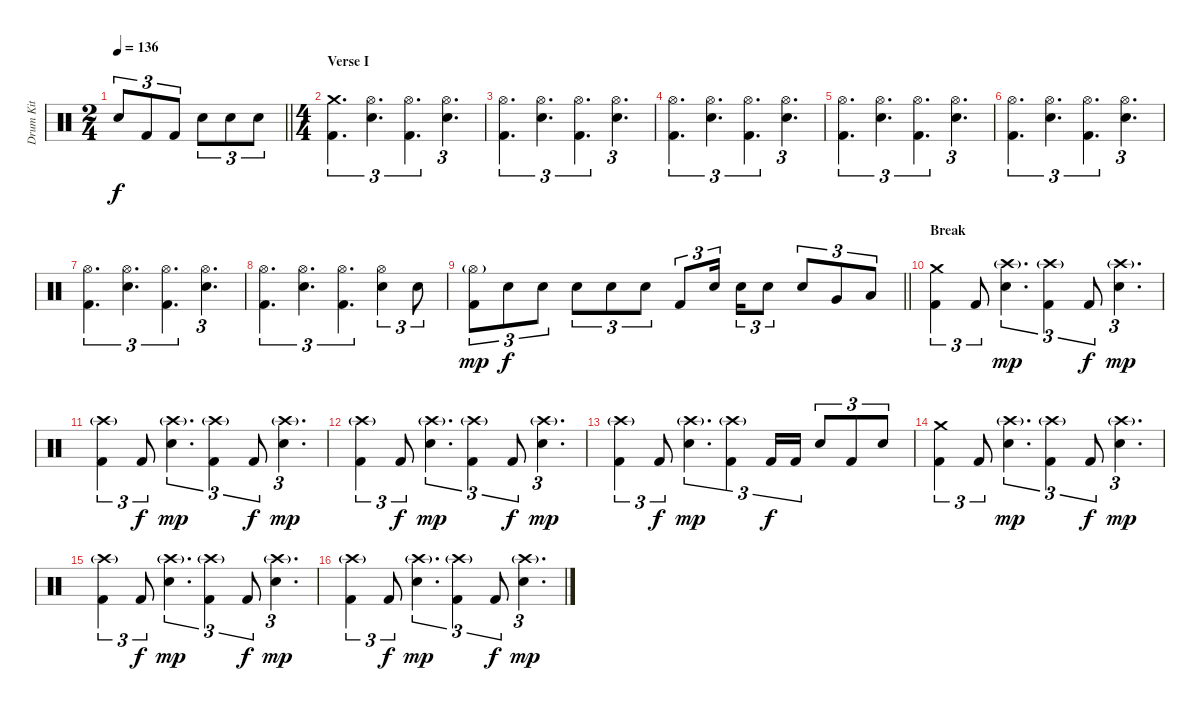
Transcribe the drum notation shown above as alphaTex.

\track ("Drum Kit" "Drum Kit") {instrument percussion}
\staff {score}
\articulation defaults
\ts (2 4)
\tempo 136
\clef neutral
\barLineRight lightlight
\ks c "Electric Snare (hit)".8{tu (3 2) dy f} "Kick (hit) 2".8{tu (3 2)} "Kick (hit) 2".8{tu (3 2)} "Electric Snare (hit)".8{tu (3 2)} "Electric Snare (hit)".8{tu (3 2)} "Electric Snare (hit)".8{tu (3 2)}
|
\ts (4 4)
\section ("" "Verse I")
("Crash medium (hit)" "Kick (hit) 2").4{d tu (3 2)} ("Hi-Hat (open)" "Electric Snare (hit)").4{d tu (3 2)} ("Hi-Hat (open)" "Kick (hit) 2").4{d tu (3 2)} ("Hi-Hat (open)" "Electric Snare (hit)").4{d tu (3 2)} |
("Hi-Hat (open)" "Kick (hit) 2").4{d tu (3 2)} ("Hi-Hat (open)" "Electric Snare (hit)").4{d tu (3 2)} ("Hi-Hat (open)" "Kick (hit) 2").4{d tu (3 2)} ("Hi-Hat (open)" "Electric Snare (hit)").4{d tu (3 2)} |
("Hi-Hat (open)" "Kick (hit) 2").4{d tu (3 2)} ("Hi-Hat (open)" "Electric Snare (hit)").4{d tu (3 2)} ("Hi-Hat (open)" "Kick (hit) 2").4{d tu (3 2)} ("Hi-Hat (open)" "Electric Snare (hit)").4{d tu (3 2)} |
("Hi-Hat (open)" "Kick (hit) 2").4{d tu (3 2)} ("Hi-Hat (open)" "Electric Snare (hit)").4{d tu (3 2)} ("Hi-Hat (open)" "Kick (hit) 2").4{d tu (3 2)} ("Hi-Hat (open)" "Electric Snare (hit)").4{d tu (3 2)} |
("Hi-Hat (open)" "Kick (hit) 2").4{d tu (3 2)} ("Hi-Hat (open)" "Electric Snare (hit)").4{d tu (3 2)} ("Hi-Hat (open)" "Kick (hit) 2").4{d tu (3 2)} ("Hi-Hat (open)" "Electric Snare (hit)").4{d tu (3 2)} |
("Hi-Hat (open)" "Kick (hit) 2").4{d tu (3 2)} ("Hi-Hat (open)" "Electric Snare (hit)").4{d tu (3 2)} ("Hi-Hat (open)" "Kick (hit) 2").4{d tu (3 2)} ("Hi-Hat (open)" "Electric Snare (hit)").4{d tu (3 2)} |
("Hi-Hat (open)" "Kick (hit) 2").4{d tu (3 2)} ("Hi-Hat (open)" "Electric Snare (hit)").4{d tu (3 2)} ("Hi-Hat (open)" "Kick (hit) 2").4{d tu (3 2)} ("Hi-Hat (open)" "Electric Snare (hit)").4{tu (3 2)} "Electric Snare (hit)".8{tu (3 2)} |
\barLineRight lightlight
("Hi-Hat (open)"{g} "Kick (hit) 2").8{tu (3 2) dy mp} "Electric Snare (hit)".8{tu (3 2) dy f} "Electric Snare (hit)".8{tu (3 2)} "Electric Snare (hit)".8{tu (3 2)} "Electric Snare (hit)".8{tu (3 2)} "Electric Snare (hit)".8{tu (3 2)} "Kick (hit) 2".8{tu (3 2)} "Electric Snare (hit)".16{tu (3 2) beam splitsecondary} "Electric Snare (hit)".16{tu (3 2)} "Electric Snare (hit)".8{tu (3 2)} "Electric Snare (hit)".8{tu (3 2)} "Very Low Tom (hit)".8{tu (3 2)} "Low Floor Tom (hit)".8{tu (3 2)} |
\section ("" "Break")
("Crash medium (hit)" "Kick (hit) 2").4{tu (3 2)} "Kick (hit) 2".8{tu (3 2)} ("Crash high (hit)"{g} "Electric Snare (hit)").4{d tu (3 2) dy mp} ("Crash high (hit)"{g} "Kick (hit) 2").4{tu (3 2)} "Kick (hit) 2".8{tu (3 2) dy f} ("Crash high (hit)"{g} "Electric Snare (hit)").4{d tu (3 2) dy mp} |
("Crash high (hit)"{g} "Kick (hit) 2").4{tu (3 2)} "Kick (hit) 2".8{tu (3 2) dy f} ("Crash high (hit)"{g} "Electric Snare (hit)").4{d tu (3 2) dy mp} ("Crash high (hit)"{g} "Kick (hit) 2").4{tu (3 2)} "Kick (hit) 2".8{tu (3 2) dy f} ("Crash high (hit)"{g} "Electric Snare (hit)").4{d tu (3 2) dy mp} |
("Crash high (hit)"{g} "Kick (hit) 2").4{tu (3 2)} "Kick (hit) 2".8{tu (3 2) dy f} ("Crash high (hit)"{g} "Electric Snare (hit)").4{d tu (3 2) dy mp} ("Crash high (hit)"{g} "Kick (hit) 2").4{tu (3 2)} "Kick (hit) 2".8{tu (3 2) dy f} ("Crash high (hit)"{g} "Electric Snare (hit)").4{d tu (3 2) dy mp} |
("Crash high (hit)"{g} "Kick (hit) 2").4{tu (3 2)} "Kick (hit) 2".8{tu (3 2) dy f} ("Crash high (hit)"{g} "Electric Snare (hit)").4{d tu (3 2) dy mp} ("Crash high (hit)"{g} "Kick (hit) 2").4{tu (3 2)} "Kick (hit) 2".16{tu (3 2) dy f} "Kick (hit) 2".16{tu (3 2)} "Electric Snare (hit)".8{tu (3 2)} "Kick (hit) 2".8{tu (3 2)} "Electric Snare (hit)".8{tu (3 2)} |
("Crash medium (hit)" "Kick (hit) 2").4{tu (3 2)} "Kick (hit) 2".8{tu (3 2)} ("Crash high (hit)"{g} "Electric Snare (hit)").4{d tu (3 2) dy mp} ("Crash high (hit)"{g} "Kick (hit) 2").4{tu (3 2)} "Kick (hit) 2".8{tu (3 2) dy f} ("Crash high (hit)"{g} "Electric Snare (hit)").4{d tu (3 2) dy mp} |
("Crash high (hit)"{g} "Kick (hit) 2").4{tu (3 2)} "Kick (hit) 2".8{tu (3 2) dy f} ("Crash high (hit)"{g} "Electric Snare (hit)").4{d tu (3 2) dy mp} ("Crash high (hit)"{g} "Kick (hit) 2").4{tu (3 2)} "Kick (hit) 2".8{tu (3 2) dy f} ("Crash high (hit)"{g} "Electric Snare (hit)").4{d tu (3 2) dy mp} |
("Crash high (hit)"{g} "Kick (hit) 2").4{tu (3 2)} "Kick (hit) 2".8{tu (3 2) dy f} ("Crash high (hit)"{g} "Electric Snare (hit)").4{d tu (3 2) dy mp} ("Crash high (hit)"{g} "Kick (hit) 2").4{tu (3 2)} "Kick (hit) 2".8{tu (3 2) dy f} ("Crash high (hit)"{g} "Electric Snare (hit)").4{d tu (3 2) dy mp}
